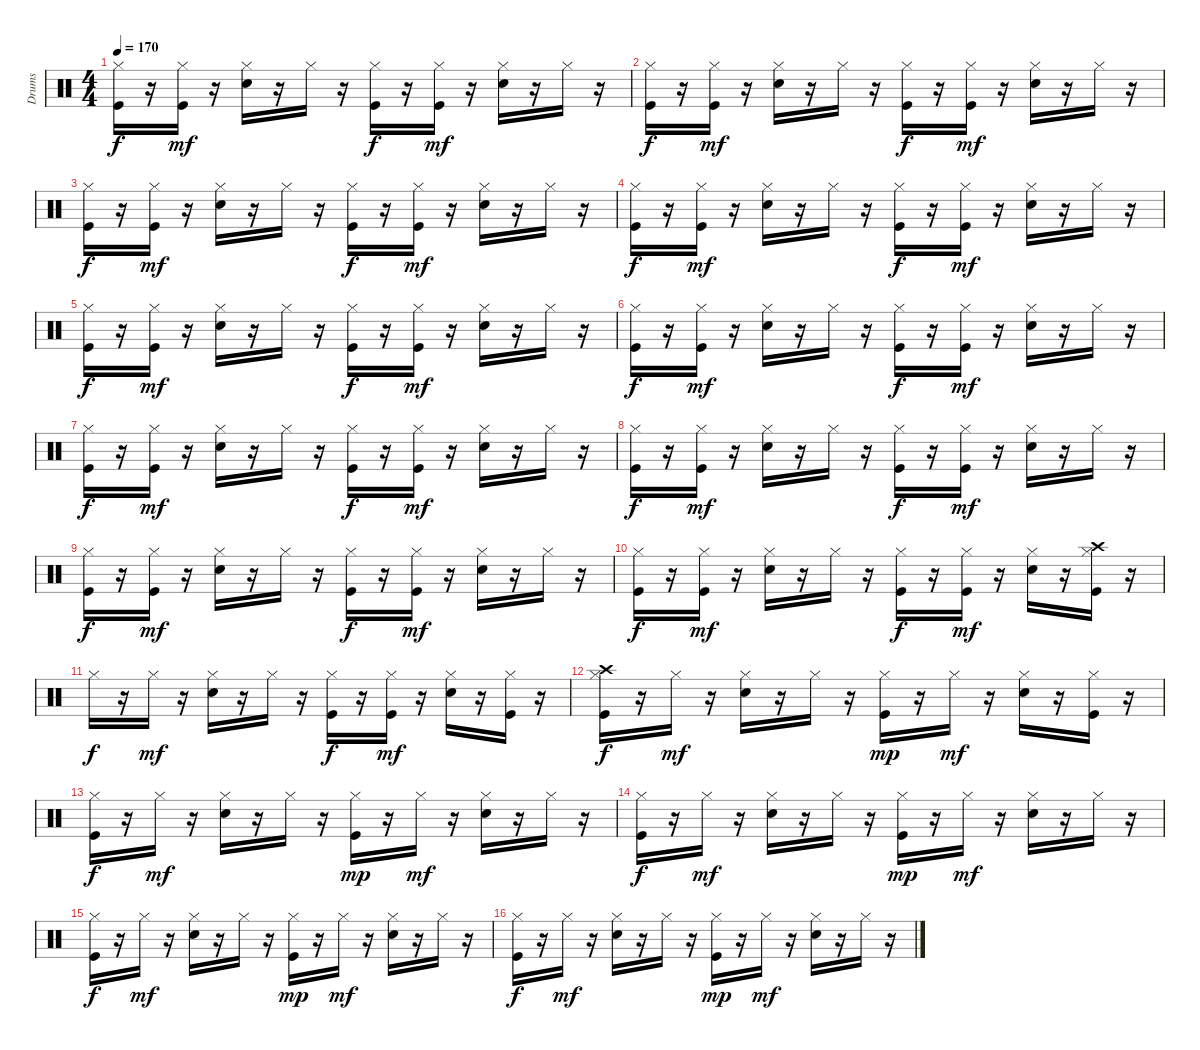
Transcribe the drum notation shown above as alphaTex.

\track ("Drums" "Drums") {instrument percussion}
\staff {score}
\articulation defaults
\ts (4 4)
\tempo 170
\clef neutral
\ks c
("Hi-Hat (closed)" "Kick (hit)").16{dy f} r.16 ("Hi-Hat (closed)" "Kick (hit)").16{dy mf} r.16 ("Hi-Hat (closed)" "Electric Snare (hit)").16 r.16 "Hi-Hat (closed)".16 r.16 ("Hi-Hat (closed)" "Kick (hit)").16{dy f} r.16 ("Hi-Hat (closed)" "Kick (hit)").16{dy mf} r.16 ("Hi-Hat (closed)" "Electric Snare (hit)").16 r.16 "Hi-Hat (closed)".16 r.16 |
("Hi-Hat (closed)" "Kick (hit)").16{dy f} r.16 ("Hi-Hat (closed)" "Kick (hit)").16{dy mf} r.16 ("Hi-Hat (closed)" "Electric Snare (hit)").16 r.16 "Hi-Hat (closed)".16 r.16 ("Hi-Hat (closed)" "Kick (hit)").16{dy f} r.16 ("Hi-Hat (closed)" "Kick (hit)").16{dy mf} r.16 ("Hi-Hat (closed)" "Electric Snare (hit)").16 r.16 "Hi-Hat (closed)".16 r.16 |
("Hi-Hat (closed)" "Kick (hit)").16{dy f} r.16 ("Hi-Hat (closed)" "Kick (hit)").16{dy mf} r.16 ("Hi-Hat (closed)" "Electric Snare (hit)").16 r.16 "Hi-Hat (closed)".16 r.16 ("Hi-Hat (closed)" "Kick (hit)").16{dy f} r.16 ("Hi-Hat (closed)" "Kick (hit)").16{dy mf} r.16 ("Hi-Hat (closed)" "Electric Snare (hit)").16 r.16 "Hi-Hat (closed)".16 r.16 |
("Hi-Hat (closed)" "Kick (hit)").16{dy f} r.16 ("Hi-Hat (closed)" "Kick (hit)").16{dy mf} r.16 ("Hi-Hat (closed)" "Electric Snare (hit)").16 r.16 "Hi-Hat (closed)".16 r.16 ("Hi-Hat (closed)" "Kick (hit)").16{dy f} r.16 ("Hi-Hat (closed)" "Kick (hit)").16{dy mf} r.16 ("Hi-Hat (closed)" "Electric Snare (hit)").16 r.16 "Hi-Hat (closed)".16 r.16 |
("Hi-Hat (closed)" "Kick (hit)").16{dy f} r.16 ("Hi-Hat (closed)" "Kick (hit)").16{dy mf} r.16 ("Hi-Hat (closed)" "Electric Snare (hit)").16 r.16 "Hi-Hat (closed)".16 r.16 ("Hi-Hat (closed)" "Kick (hit)").16{dy f} r.16 ("Hi-Hat (closed)" "Kick (hit)").16{dy mf} r.16 ("Hi-Hat (closed)" "Electric Snare (hit)").16 r.16 "Hi-Hat (closed)".16 r.16 |
("Hi-Hat (closed)" "Kick (hit)").16{dy f} r.16 ("Hi-Hat (closed)" "Kick (hit)").16{dy mf} r.16 ("Hi-Hat (closed)" "Electric Snare (hit)").16 r.16 "Hi-Hat (closed)".16 r.16 ("Hi-Hat (closed)" "Kick (hit)").16{dy f} r.16 ("Hi-Hat (closed)" "Kick (hit)").16{dy mf} r.16 ("Hi-Hat (closed)" "Electric Snare (hit)").16 r.16 "Hi-Hat (closed)".16 r.16 |
("Hi-Hat (closed)" "Kick (hit)").16{dy f} r.16 ("Hi-Hat (closed)" "Kick (hit)").16{dy mf} r.16 ("Hi-Hat (closed)" "Electric Snare (hit)").16 r.16 "Hi-Hat (closed)".16 r.16 ("Hi-Hat (closed)" "Kick (hit)").16{dy f} r.16 ("Hi-Hat (closed)" "Kick (hit)").16{dy mf} r.16 ("Hi-Hat (closed)" "Electric Snare (hit)").16 r.16 "Hi-Hat (closed)".16 r.16 |
("Hi-Hat (closed)" "Kick (hit)").16{dy f} r.16 ("Hi-Hat (closed)" "Kick (hit)").16{dy mf} r.16 ("Hi-Hat (closed)" "Electric Snare (hit)").16 r.16 "Hi-Hat (closed)".16 r.16 ("Hi-Hat (closed)" "Kick (hit)").16{dy f} r.16 ("Hi-Hat (closed)" "Kick (hit)").16{dy mf} r.16 ("Hi-Hat (closed)" "Electric Snare (hit)").16 r.16 "Hi-Hat (closed)".16 r.16 |
("Hi-Hat (closed)" "Kick (hit)").16{dy f} r.16 ("Hi-Hat (closed)" "Kick (hit)").16{dy mf} r.16 ("Hi-Hat (closed)" "Electric Snare (hit)").16 r.16 "Hi-Hat (closed)".16 r.16 ("Hi-Hat (closed)" "Kick (hit)").16{dy f} r.16 ("Hi-Hat (closed)" "Kick (hit)").16{dy mf} r.16 ("Hi-Hat (closed)" "Electric Snare (hit)").16 r.16 "Hi-Hat (closed)".16 r.16 |
("Hi-Hat (closed)" "Kick (hit)").16{dy f} r.16 ("Hi-Hat (closed)" "Kick (hit)").16{dy mf} r.16 ("Hi-Hat (closed)" "Electric Snare (hit)").16 r.16 "Hi-Hat (closed)".16 r.16 ("Hi-Hat (closed)" "Kick (hit)").16{dy f} r.16 ("Hi-Hat (closed)" "Kick (hit)").16{dy mf} r.16 ("Hi-Hat (closed)" "Electric Snare (hit)").16 r.16 ("Hi-Hat (closed)" "Crash high (hit)" "Kick (hit)").16 r.16 |
"Hi-Hat (closed)".16{dy f} r.16 "Hi-Hat (closed)".16{dy mf} r.16 ("Hi-Hat (closed)" "Electric Snare (hit)").16 r.16 "Hi-Hat (closed)".16 r.16 ("Hi-Hat (closed)" "Kick (hit)").16{dy f} r.16 ("Hi-Hat (closed)" "Kick (hit)").16{dy mf} r.16 ("Hi-Hat (closed)" "Electric Snare (hit)").16 r.16 ("Hi-Hat (closed)" "Kick (hit)").16 r.16 |
("Hi-Hat (closed)" "Crash high (hit)" "Kick (hit)").16{dy f} r.16 "Hi-Hat (closed)".16{dy mf} r.16 ("Hi-Hat (closed)" "Electric Snare (hit)").16 r.16 "Hi-Hat (closed)".16 r.16 ("Hi-Hat (closed)" "Kick (hit)").16{dy mp} r.16 "Hi-Hat (closed)".16{dy mf} r.16 ("Hi-Hat (closed)" "Electric Snare (hit)").16 r.16 ("Hi-Hat (closed)" "Kick (hit)").16 r.16 |
("Hi-Hat (closed)" "Kick (hit)").16{dy f} r.16 "Hi-Hat (closed)".16{dy mf} r.16 ("Hi-Hat (closed)" "Electric Snare (hit)").16 r.16 "Hi-Hat (closed)".16 r.16 ("Hi-Hat (closed)" "Kick (hit)").16{dy mp} r.16 "Hi-Hat (closed)".16{dy mf} r.16 ("Hi-Hat (closed)" "Electric Snare (hit)").16 r.16 "Hi-Hat (closed)".16 r.16 |
("Hi-Hat (closed)" "Kick (hit)").16{dy f} r.16 "Hi-Hat (closed)".16{dy mf} r.16 ("Hi-Hat (closed)" "Electric Snare (hit)").16 r.16 "Hi-Hat (closed)".16 r.16 ("Hi-Hat (closed)" "Kick (hit)").16{dy mp} r.16 "Hi-Hat (closed)".16{dy mf} r.16 ("Hi-Hat (closed)" "Electric Snare (hit)").16 r.16 "Hi-Hat (closed)".16 r.16 |
("Hi-Hat (closed)" "Kick (hit)").16{dy f} r.16 "Hi-Hat (closed)".16{dy mf} r.16 ("Hi-Hat (closed)" "Electric Snare (hit)").16 r.16 "Hi-Hat (closed)".16 r.16 ("Hi-Hat (closed)" "Kick (hit)").16{dy mp} r.16 "Hi-Hat (closed)".16{dy mf} r.16 ("Hi-Hat (closed)" "Electric Snare (hit)").16 r.16 "Hi-Hat (closed)".16 r.16 |
("Hi-Hat (closed)" "Kick (hit)").16{dy f} r.16 "Hi-Hat (closed)".16{dy mf} r.16 ("Hi-Hat (closed)" "Electric Snare (hit)").16 r.16 "Hi-Hat (closed)".16 r.16 ("Hi-Hat (closed)" "Kick (hit)").16{dy mp} r.16 "Hi-Hat (closed)".16{dy mf} r.16 ("Hi-Hat (closed)" "Electric Snare (hit)").16 r.16 "Hi-Hat (closed)".16 r.16
